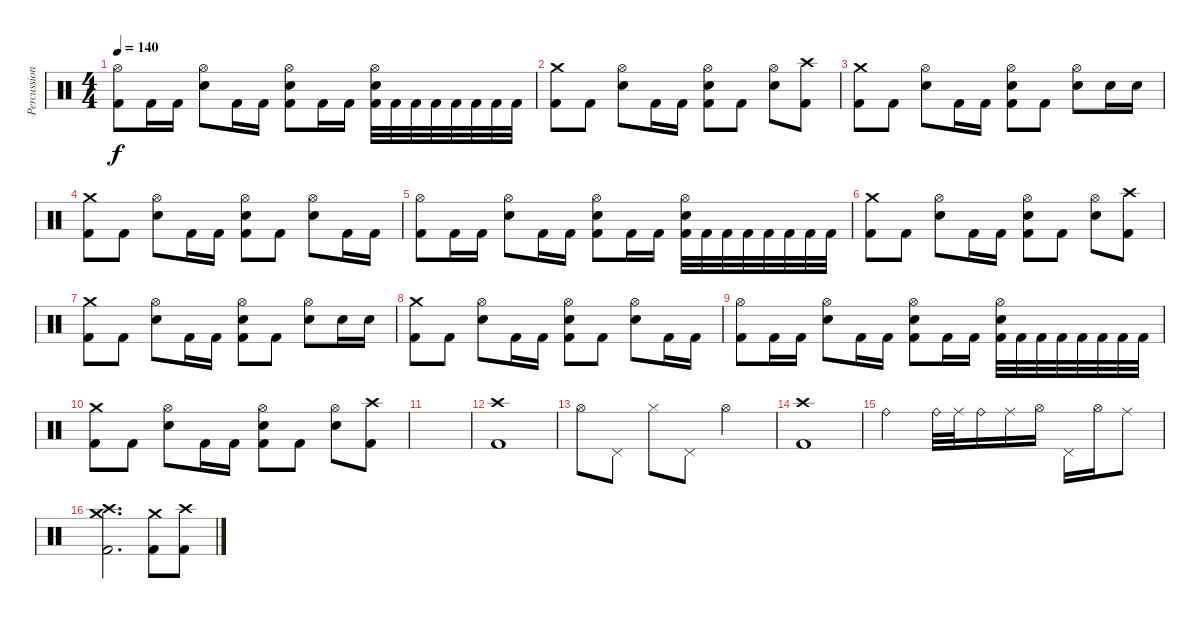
\track ("Percussion" "Percussion") {instrument percussion}
\staff {score}
\articulation defaults
\ts (4 4)
\tempo 140
\clef neutral
\ks c
("Hi-Hat (open)" "Kick (hit) 2").8{dy f} "Kick (hit) 2".16 "Kick (hit) 2".16 ("Hi-Hat (open)" "Electric Snare (hit)").8 "Kick (hit) 2".16 "Kick (hit) 2".16 ("Hi-Hat (open)" "Electric Snare (hit)" "Kick (hit) 2").8 "Kick (hit) 2".16 "Kick (hit) 2".16 ("Hi-Hat (open)" "Electric Snare (hit)" "Kick (hit) 2").32 "Kick (hit) 2".32 "Kick (hit) 2".32 "Kick (hit) 2".32 "Kick (hit) 2".32 "Kick (hit) 2".32 "Kick (hit) 2".32 "Kick (hit) 2".32 |
("Crash medium (hit)" "Kick (hit) 2").8 "Kick (hit) 2".8 ("Hi-Hat (open)" "Electric Snare (hit)").8 "Kick (hit) 2".16 "Kick (hit) 2".16 ("Hi-Hat (open)" "Electric Snare (hit)" "Kick (hit) 2").8 "Kick (hit) 2".8 ("Hi-Hat (open)" "Electric Snare (hit)").8 ("Crash high (hit)" "Kick (hit) 2").8 |
("Crash medium (hit)" "Kick (hit) 2").8 "Kick (hit) 2".8 ("Hi-Hat (open)" "Electric Snare (hit)").8 "Kick (hit) 2".16 "Kick (hit) 2".16 ("Hi-Hat (open)" "Electric Snare (hit)" "Kick (hit) 2").8 "Kick (hit) 2".8 ("Hi-Hat (open)" "Electric Snare (hit)").8 "Electric Snare (hit)".16 "Electric Snare (hit)".16 |
("Crash medium (hit)" "Kick (hit) 2").8 "Kick (hit) 2".8 ("Hi-Hat (open)" "Electric Snare (hit)").8 "Kick (hit) 2".16 "Kick (hit) 2".16 ("Hi-Hat (open)" "Electric Snare (hit)" "Kick (hit) 2").8 "Kick (hit) 2".8 ("Hi-Hat (open)" "Electric Snare (hit)").8 "Kick (hit) 2".16 "Kick (hit) 2".16 |
("Hi-Hat (open)" "Kick (hit) 2").8 "Kick (hit) 2".16 "Kick (hit) 2".16 ("Hi-Hat (open)" "Electric Snare (hit)").8 "Kick (hit) 2".16 "Kick (hit) 2".16 ("Hi-Hat (open)" "Electric Snare (hit)" "Kick (hit) 2").8 "Kick (hit) 2".16 "Kick (hit) 2".16 ("Hi-Hat (open)" "Electric Snare (hit)" "Kick (hit) 2").32 "Kick (hit) 2".32 "Kick (hit) 2".32 "Kick (hit) 2".32 "Kick (hit) 2".32 "Kick (hit) 2".32 "Kick (hit) 2".32 "Kick (hit) 2".32 |
("Crash medium (hit)" "Kick (hit) 2").8 "Kick (hit) 2".8 ("Hi-Hat (open)" "Electric Snare (hit)").8 "Kick (hit) 2".16 "Kick (hit) 2".16 ("Hi-Hat (open)" "Electric Snare (hit)" "Kick (hit) 2").8 "Kick (hit) 2".8 ("Hi-Hat (open)" "Electric Snare (hit)").8 ("Crash high (hit)" "Kick (hit) 2").8 |
("Crash medium (hit)" "Kick (hit) 2").8 "Kick (hit) 2".8 ("Hi-Hat (open)" "Electric Snare (hit)").8 "Kick (hit) 2".16 "Kick (hit) 2".16 ("Hi-Hat (open)" "Electric Snare (hit)" "Kick (hit) 2").8 "Kick (hit) 2".8 ("Hi-Hat (open)" "Electric Snare (hit)").8 "Electric Snare (hit)".16 "Electric Snare (hit)".16 |
("Crash medium (hit)" "Kick (hit) 2").8 "Kick (hit) 2".8 ("Hi-Hat (open)" "Electric Snare (hit)").8 "Kick (hit) 2".16 "Kick (hit) 2".16 ("Hi-Hat (open)" "Electric Snare (hit)" "Kick (hit) 2").8 "Kick (hit) 2".8 ("Hi-Hat (open)" "Electric Snare (hit)").8 "Kick (hit) 2".16 "Kick (hit) 2".16 |
("Hi-Hat (open)" "Kick (hit) 2").8 "Kick (hit) 2".16 "Kick (hit) 2".16 ("Hi-Hat (open)" "Electric Snare (hit)").8 "Kick (hit) 2".16 "Kick (hit) 2".16 ("Hi-Hat (open)" "Electric Snare (hit)" "Kick (hit) 2").8 "Kick (hit) 2".16 "Kick (hit) 2".16 ("Hi-Hat (open)" "Electric Snare (hit)" "Kick (hit) 2").32 "Kick (hit) 2".32 "Kick (hit) 2".32 "Kick (hit) 2".32 "Kick (hit) 2".32 "Kick (hit) 2".32 "Kick (hit) 2".32 "Kick (hit) 2".32 |
("Crash medium (hit)" "Kick (hit) 2").8 "Kick (hit) 2".8 ("Hi-Hat (open)" "Electric Snare (hit)").8 "Kick (hit) 2".16 "Kick (hit) 2".16 ("Hi-Hat (open)" "Electric Snare (hit)" "Kick (hit) 2").8 "Kick (hit) 2".8 ("Hi-Hat (open)" "Electric Snare (hit)").8 ("Crash high (hit)" "Kick (hit) 2").8 |
|
("Crash high (hit)" "Kick (hit) 2").1 |
"Hi-Hat (open)".8 "Pedal Hi-Hat (hit)".8 "Hi-Hat (closed)".8 "Pedal Hi-Hat (hit)".8 "Hi-Hat (open)".2 |
("Crash high (hit)" "Kick (hit) 2").1 |
"Ride (bell)".2 "Ride (bell)".32 "Ride (middle)".32 "Ride (bell)".16 "Ride (middle)".16 "Hi-Hat (open)".16 "Pedal Hi-Hat (hit)".16 "Hi-Hat (open)".16 "Ride (middle)".8 |
("Crash high (hit)" "Crash medium (hit)" "Kick (hit) 2").2{d} ("Crash medium (hit)" "Kick (hit) 2").8 ("Crash high (hit)" "Kick (hit) 2").8
